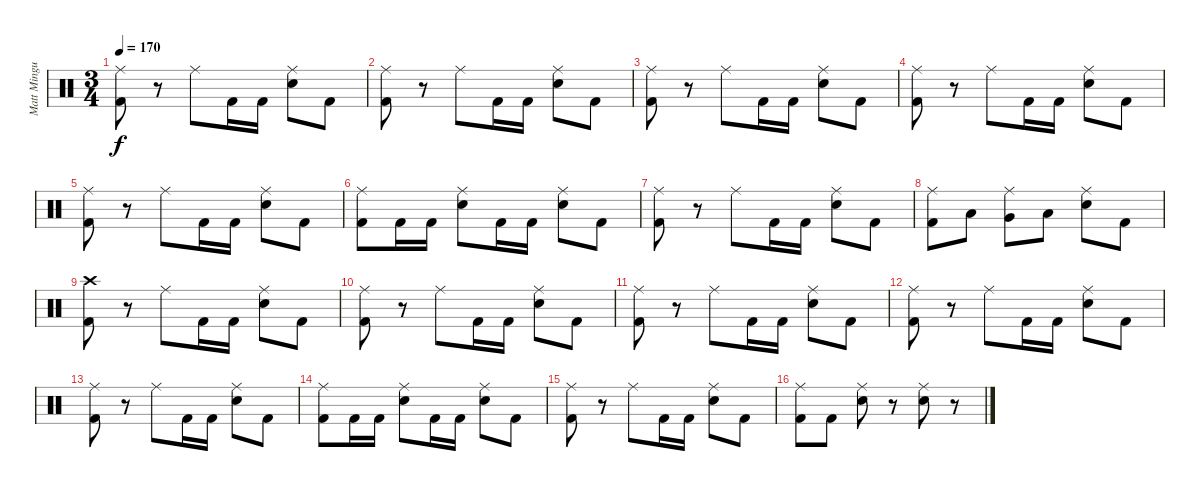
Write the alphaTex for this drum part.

\track ("Matt Mingus (Drum Kit)" "Matt Mingu") {instrument percussion}
\staff {score}
\articulation defaults
\ts (3 4)
\tempo 170
\clef neutral
\ks c
("Ride (middle)" "Kick (hit) 2").8{dy f} r.8 "Ride (middle)".8 "Kick (hit) 2".16 "Kick (hit) 2".16 ("Ride (middle)" "Electric Snare (hit)").8 "Kick (hit) 2".8 |
("Ride (middle)" "Kick (hit) 2").8 r.8 "Ride (middle)".8 "Kick (hit) 2".16 "Kick (hit) 2".16 ("Ride (middle)" "Electric Snare (hit)").8 "Kick (hit) 2".8 |
("Ride (middle)" "Kick (hit) 2").8 r.8 "Ride (middle)".8 "Kick (hit) 2".16 "Kick (hit) 2".16 ("Ride (middle)" "Electric Snare (hit)").8 "Kick (hit) 2".8 |
("Ride (middle)" "Kick (hit) 2").8 r.8 "Ride (middle)".8 "Kick (hit) 2".16 "Kick (hit) 2".16 ("Ride (middle)" "Electric Snare (hit)").8 "Kick (hit) 2".8 |
("Ride (middle)" "Kick (hit) 2").8 r.8 "Ride (middle)".8 "Kick (hit) 2".16 "Kick (hit) 2".16 ("Ride (middle)" "Electric Snare (hit)").8 "Kick (hit) 2".8 |
("Ride (middle)" "Kick (hit) 2").8 "Kick (hit) 2".16 "Kick (hit) 2".16 ("Ride (middle)" "Electric Snare (hit)").8 "Kick (hit) 2".16 "Kick (hit) 2".16 ("Ride (middle)" "Electric Snare (hit)").8 "Kick (hit) 2".8 |
("Ride (middle)" "Kick (hit) 2").8 r.8 "Ride (middle)".8 "Kick (hit) 2".16 "Kick (hit) 2".16 ("Ride (middle)" "Electric Snare (hit)").8 "Kick (hit) 2".8 |
("Ride (middle)" "Kick (hit) 2").8 "Low Tom (hit)".8 ("Ride (middle)" "Very Low Tom (hit)").8 "Low Floor Tom (hit)".8 ("Ride (middle)" "Electric Snare (hit)").8 "Kick (hit) 2".8 |
("Crash high (hit)" "Kick (hit) 2").8 r.8 "Ride (middle)".8 "Kick (hit) 2".16 "Kick (hit) 2".16 ("Ride (middle)" "Electric Snare (hit)").8 "Kick (hit) 2".8 |
("Ride (middle)" "Kick (hit) 2").8 r.8 "Ride (middle)".8 "Kick (hit) 2".16 "Kick (hit) 2".16 ("Ride (middle)" "Electric Snare (hit)").8 "Kick (hit) 2".8 |
("Ride (middle)" "Kick (hit) 2").8 r.8 "Ride (middle)".8 "Kick (hit) 2".16 "Kick (hit) 2".16 ("Ride (middle)" "Electric Snare (hit)").8 "Kick (hit) 2".8 |
("Ride (middle)" "Kick (hit) 2").8 r.8 "Ride (middle)".8 "Kick (hit) 2".16 "Kick (hit) 2".16 ("Ride (middle)" "Electric Snare (hit)").8 "Kick (hit) 2".8 |
("Ride (middle)" "Kick (hit) 2").8 r.8 "Ride (middle)".8 "Kick (hit) 2".16 "Kick (hit) 2".16 ("Ride (middle)" "Electric Snare (hit)").8 "Kick (hit) 2".8 |
("Ride (middle)" "Kick (hit) 2").8 "Kick (hit) 2".16 "Kick (hit) 2".16 ("Ride (middle)" "Electric Snare (hit)").8 "Kick (hit) 2".16 "Kick (hit) 2".16 ("Ride (middle)" "Electric Snare (hit)").8 "Kick (hit) 2".8 |
("Ride (middle)" "Kick (hit) 2").8 r.8 "Ride (middle)".8 "Kick (hit) 2".16 "Kick (hit) 2".16 ("Ride (middle)" "Electric Snare (hit)").8 "Kick (hit) 2".8 |
("Ride (middle)" "Kick (hit) 2").8 "Kick (hit) 2".8 ("Ride (middle)" "Electric Snare (hit)").8 r.8 ("Ride (middle)" "Electric Snare (hit)").8 r.8
